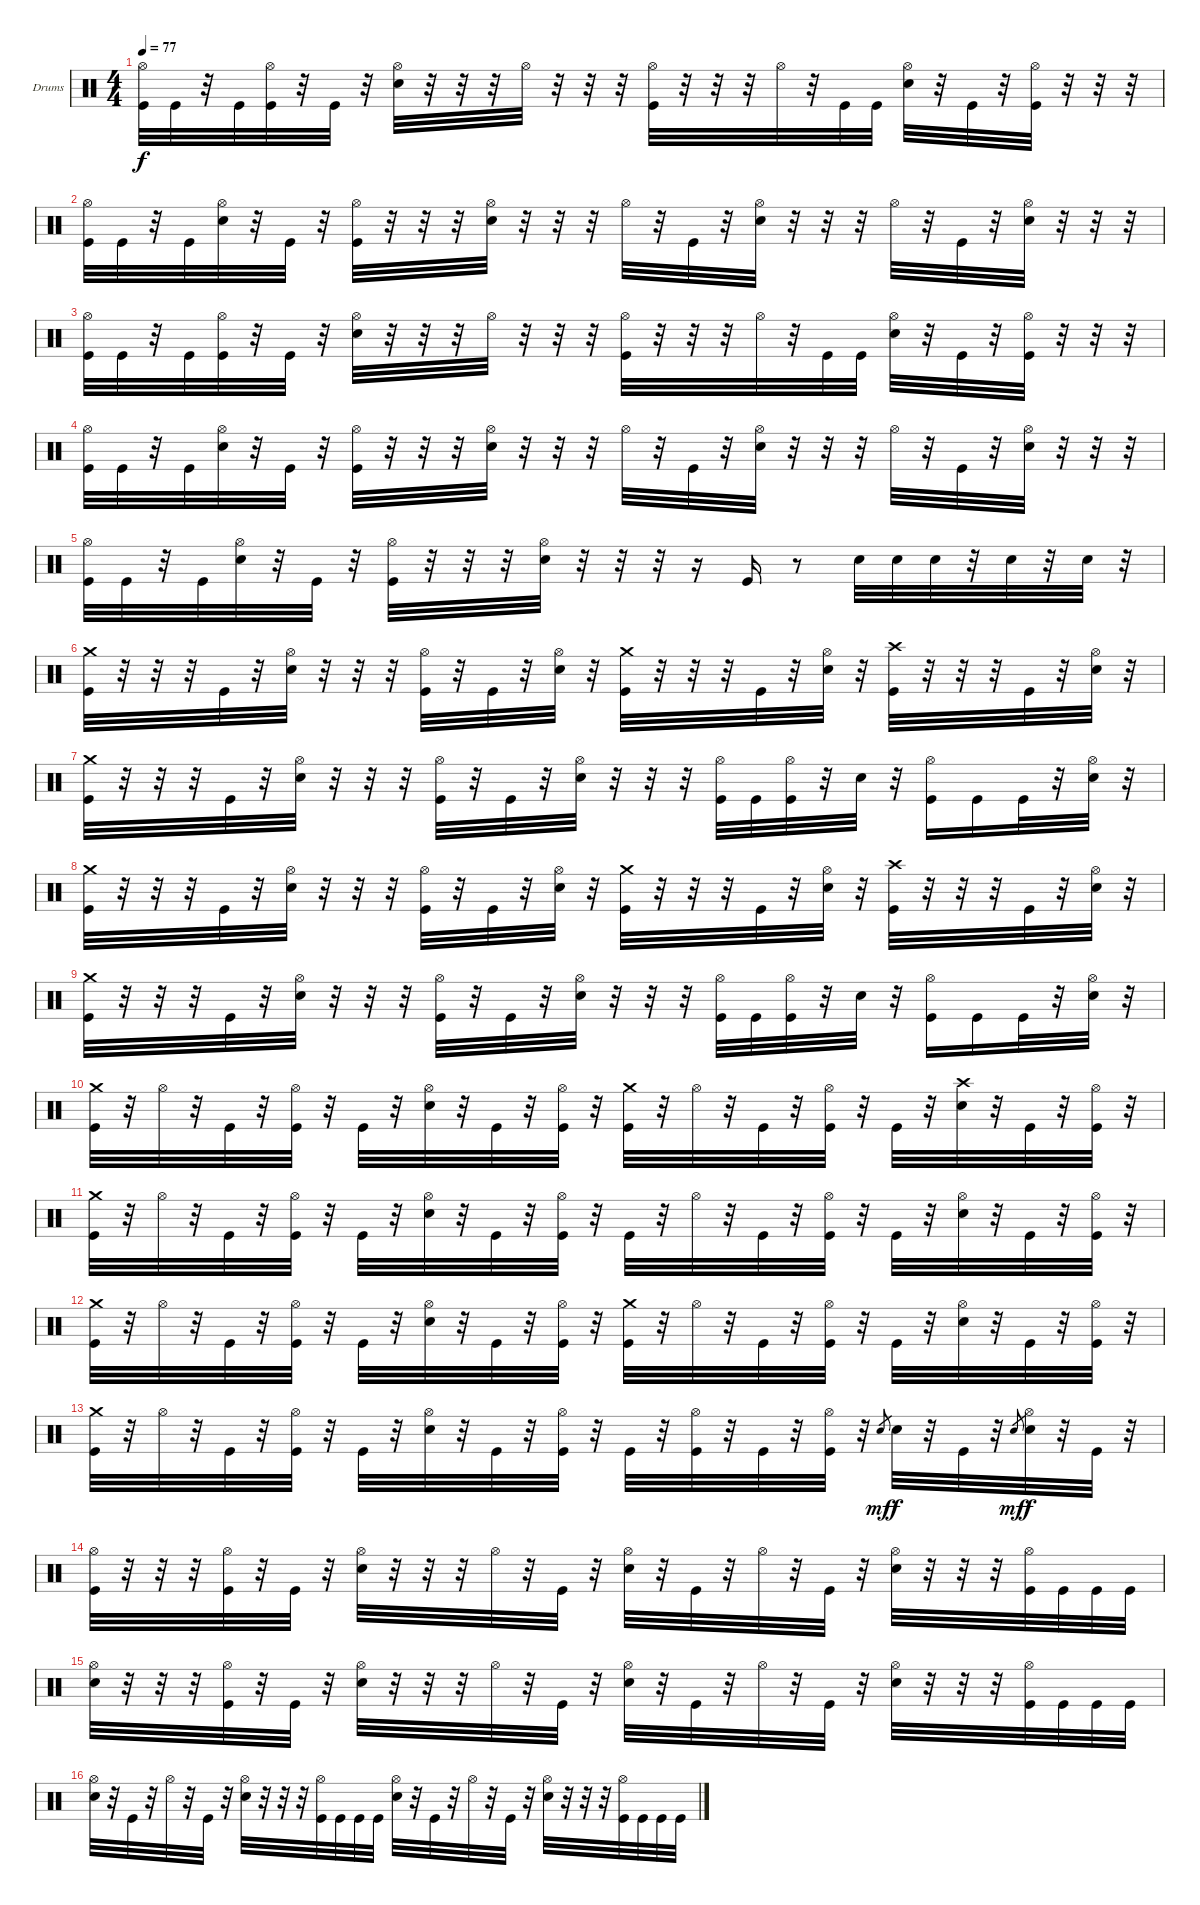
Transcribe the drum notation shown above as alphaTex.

\defaultSystemsLayout 4
\bracketExtendMode groupsimilarinstruments
\firstSystemTrackNameOrientation horizontal
\otherSystemsTrackNameOrientation horizontal
\track ("Drumkit" "Drums") {instrument percussion}
\staff {score}
\articulation defaults
\ts (4 4)
\tempo 77
\clef neutral
\ks c
("Hi-Hat (open)" "Kick (hit)").32{dy f} "Kick (hit)".32 r.32 "Kick (hit)".32 ("Hi-Hat (open)" "Kick (hit)").32 r.32 "Kick (hit)".32 r.32 ("Hi-Hat (open)" "Snare (hit) 2").32 r.32 r.32 r.32 "Hi-Hat (open)".32 r.32 r.32 r.32 ("Hi-Hat (open)" "Kick (hit)").32 r.32 r.32 r.32 "Hi-Hat (open)".32 r.32 "Kick (hit)".32 "Kick (hit)".32 ("Hi-Hat (open)" "Snare (hit) 2").32 r.32 "Kick (hit)".32 r.32 ("Hi-Hat (open)" "Kick (hit)").32 r.32 r.32 r.32 |
("Hi-Hat (open)" "Kick (hit)").32 "Kick (hit)".32 r.32 "Kick (hit)".32 ("Hi-Hat (open)" "Snare (hit) 2").32 r.32 "Kick (hit)".32 r.32 ("Hi-Hat (open)" "Kick (hit)").32 r.32 r.32 r.32 ("Hi-Hat (open)" "Snare (hit) 2").32 r.32 r.32 r.32 "Hi-Hat (open)".32 r.32 "Kick (hit)".32 r.32 ("Hi-Hat (open)" "Snare (hit) 2").32 r.32 r.32 r.32 "Hi-Hat (open)".32 r.32 "Kick (hit)".32 r.32 ("Hi-Hat (open)" "Snare (hit) 2").32 r.32 r.32 r.32 |
("Hi-Hat (open)" "Kick (hit)").32 "Kick (hit)".32 r.32 "Kick (hit)".32 ("Hi-Hat (open)" "Kick (hit)").32 r.32 "Kick (hit)".32 r.32 ("Hi-Hat (open)" "Snare (hit) 2").32 r.32 r.32 r.32 "Hi-Hat (open)".32 r.32 r.32 r.32 ("Hi-Hat (open)" "Kick (hit)").32 r.32 r.32 r.32 "Hi-Hat (open)".32 r.32 "Kick (hit)".32 "Kick (hit)".32 ("Hi-Hat (open)" "Snare (hit) 2").32 r.32 "Kick (hit)".32 r.32 ("Hi-Hat (open)" "Kick (hit)").32 r.32 r.32 r.32 |
("Hi-Hat (open)" "Kick (hit)").32 "Kick (hit)".32 r.32 "Kick (hit)".32 ("Hi-Hat (open)" "Snare (hit) 2").32 r.32 "Kick (hit)".32 r.32 ("Hi-Hat (open)" "Kick (hit)").32 r.32 r.32 r.32 ("Hi-Hat (open)" "Snare (hit) 2").32 r.32 r.32 r.32 "Hi-Hat (open)".32 r.32 "Kick (hit)".32 r.32 ("Hi-Hat (open)" "Snare (hit) 2").32 r.32 r.32 r.32 "Hi-Hat (open)".32 r.32 "Kick (hit)".32 r.32 ("Hi-Hat (open)" "Snare (hit) 2").32 r.32 r.32 r.32 |
("Hi-Hat (open)" "Kick (hit)").32 "Kick (hit)".32 r.32 "Kick (hit)".32 ("Hi-Hat (open)" "Snare (hit) 2").32 r.32 "Kick (hit)".32 r.32 ("Hi-Hat (open)" "Kick (hit)").32 r.32 r.32 r.32 ("Hi-Hat (open)" "Snare (hit) 2").32 r.32 r.32 r.32 r.16 "Kick (hit)".16 r.8 "Snare (hit) 2".32 "Snare (hit) 2".32 "Snare (hit) 2".32 r.32 "Snare (hit) 2".32 r.32 "Snare (hit) 2".32 r.32 |
("Crash medium (hit)" "Kick (hit)").32 r.32 r.32 r.32 "Kick (hit)".32 r.32 ("Hi-Hat (open)" "Snare (hit) 2").32 r.32 r.32 r.32 ("Hi-Hat (open)" "Kick (hit)").32 r.32 "Kick (hit)".32 r.32 ("Hi-Hat (open)" "Snare (hit) 2").32 r.32 ("Crash medium (hit)" "Kick (hit)").32 r.32 r.32 r.32 "Kick (hit)".32 r.32 ("Hi-Hat (open)" "Snare (hit) 2").32 r.32 ("Crash high (hit)" "Kick (hit)").32 r.32 r.32 r.32 "Kick (hit)".32 r.32 ("Hi-Hat (open)" "Snare (hit) 2").32 r.32 |
("Crash medium (hit)" "Kick (hit)").32 r.32 r.32 r.32 "Kick (hit)".32 r.32 ("Hi-Hat (open)" "Snare (hit) 2").32 r.32 r.32 r.32 ("Hi-Hat (open)" "Kick (hit)").32 r.32 "Kick (hit)".32 r.32 ("Hi-Hat (open)" "Snare (hit) 2").32 r.32 r.32 r.32 ("Hi-Hat (open)" "Kick (hit)").32 "Kick (hit)".32 ("Hi-Hat (open)" "Kick (hit)").32 r.32 "Snare (hit) 2".32 r.32 ("Hi-Hat (open)" "Kick (hit)").16 "Kick (hit)".16 "Kick (hit)".32 r.32 ("Hi-Hat (open)" "Snare (hit) 2").32 r.32 |
("Crash medium (hit)" "Kick (hit)").32 r.32 r.32 r.32 "Kick (hit)".32 r.32 ("Hi-Hat (open)" "Snare (hit) 2").32 r.32 r.32 r.32 ("Hi-Hat (open)" "Kick (hit)").32 r.32 "Kick (hit)".32 r.32 ("Hi-Hat (open)" "Snare (hit) 2").32 r.32 ("Crash medium (hit)" "Kick (hit)").32 r.32 r.32 r.32 "Kick (hit)".32 r.32 ("Hi-Hat (open)" "Snare (hit) 2").32 r.32 ("Crash high (hit)" "Kick (hit)").32 r.32 r.32 r.32 "Kick (hit)".32 r.32 ("Hi-Hat (open)" "Snare (hit) 2").32 r.32 |
("Crash medium (hit)" "Kick (hit)").32 r.32 r.32 r.32 "Kick (hit)".32 r.32 ("Hi-Hat (open)" "Snare (hit) 2").32 r.32 r.32 r.32 ("Hi-Hat (open)" "Kick (hit)").32 r.32 "Kick (hit)".32 r.32 ("Hi-Hat (open)" "Snare (hit) 2").32 r.32 r.32 r.32 ("Hi-Hat (open)" "Kick (hit)").32 "Kick (hit)".32 ("Hi-Hat (open)" "Kick (hit)").32 r.32 "Snare (hit) 2".32 r.32 ("Hi-Hat (open)" "Kick (hit)").16 "Kick (hit)".16 "Kick (hit)".32 r.32 ("Hi-Hat (open)" "Snare (hit) 2").32 r.32 |
("Crash medium (hit)" "Kick (hit)").32 r.32 "Hi-Hat (open)".32 r.32 "Kick (hit)".32 r.32 ("Hi-Hat (open)" "Kick (hit)").32 r.32 "Kick (hit)".32 r.32 ("Hi-Hat (open)" "Snare (hit) 2").32 r.32 "Kick (hit)".32 r.32 ("Hi-Hat (open)" "Kick (hit)").32 r.32 ("Crash medium (hit)" "Kick (hit)").32 r.32 "Hi-Hat (open)".32 r.32 "Kick (hit)".32 r.32 ("Hi-Hat (open)" "Kick (hit)").32 r.32 "Kick (hit)".32 r.32 ("Crash high (hit)" "Snare (hit) 2").32 r.32 "Kick (hit)".32 r.32 ("Hi-Hat (open)" "Kick (hit)").32 r.32 |
("Crash medium (hit)" "Kick (hit)").32 r.32 "Hi-Hat (open)".32 r.32 "Kick (hit)".32 r.32 ("Hi-Hat (open)" "Kick (hit)").32 r.32 "Kick (hit)".32 r.32 ("Hi-Hat (open)" "Snare (hit) 2").32 r.32 "Kick (hit)".32 r.32 ("Hi-Hat (open)" "Kick (hit)").32 r.32 "Kick (hit)".32 r.32 "Hi-Hat (open)".32 r.32 "Kick (hit)".32 r.32 ("Hi-Hat (open)" "Kick (hit)").32 r.32 "Kick (hit)".32 r.32 ("Hi-Hat (open)" "Snare (hit) 2").32 r.32 "Kick (hit)".32 r.32 ("Hi-Hat (open)" "Kick (hit)").32 r.32 |
("Crash medium (hit)" "Kick (hit)").32 r.32 "Hi-Hat (open)".32 r.32 "Kick (hit)".32 r.32 ("Hi-Hat (open)" "Kick (hit)").32 r.32 "Kick (hit)".32 r.32 ("Hi-Hat (open)" "Snare (hit) 2").32 r.32 "Kick (hit)".32 r.32 ("Hi-Hat (open)" "Kick (hit)").32 r.32 ("Crash medium (hit)" "Kick (hit)").32 r.32 "Hi-Hat (open)".32 r.32 "Kick (hit)".32 r.32 ("Hi-Hat (open)" "Kick (hit)").32 r.32 "Kick (hit)".32 r.32 ("Hi-Hat (open)" "Snare (hit) 2").32 r.32 "Kick (hit)".32 r.32 ("Hi-Hat (open)" "Kick (hit)").32 r.32 |
("Crash medium (hit)" "Kick (hit)").32 r.32 "Hi-Hat (open)".32 r.32 "Kick (hit)".32 r.32 ("Hi-Hat (open)" "Kick (hit)").32 r.32 "Kick (hit)".32 r.32 ("Hi-Hat (open)" "Snare (hit) 2").32 r.32 "Kick (hit)".32 r.32 ("Hi-Hat (open)" "Kick (hit)").32 r.32 "Kick (hit)".32 r.32 ("Hi-Hat (open)" "Kick (hit)").32 r.32 "Kick (hit)".32 r.32 ("Hi-Hat (open)" "Kick (hit)").32 r.32 "Snare (hit) 2".8{gr dy mf} "Snare (hit) 2".32{dy f} r.32 "Kick (hit)".32 r.32 "Snare (hit) 2".8{gr dy mf} ("Hi-Hat (open)" "Snare (hit) 2").32{dy f} r.32 "Kick (hit)".32 r.32 |
("Hi-Hat (open)" "Kick (hit)").32 r.32 r.32 r.32 ("Hi-Hat (open)" "Kick (hit)").32 r.32 "Kick (hit)".32 r.32 ("Hi-Hat (open)" "Snare (hit) 2").32 r.32 r.32 r.32 "Hi-Hat (open)".32 r.32 "Kick (hit)".32 r.32 ("Hi-Hat (open)" "Snare (hit) 2").32 r.32 "Kick (hit)".32 r.32 "Hi-Hat (open)".32 r.32 "Kick (hit)".32 r.32 ("Hi-Hat (open)" "Snare (hit) 2").32 r.32 r.32 r.32 ("Hi-Hat (open)" "Kick (hit)").32 "Kick (hit)".32 "Kick (hit)".32 "Kick (hit)".32 |
("Hi-Hat (open)" "Snare (hit) 2").32 r.32 r.32 r.32 ("Hi-Hat (open)" "Kick (hit)").32 r.32 "Kick (hit)".32 r.32 ("Hi-Hat (open)" "Snare (hit) 2").32 r.32 r.32 r.32 "Hi-Hat (open)".32 r.32 "Kick (hit)".32 r.32 ("Hi-Hat (open)" "Snare (hit) 2").32 r.32 "Kick (hit)".32 r.32 "Hi-Hat (open)".32 r.32 "Kick (hit)".32 r.32 ("Hi-Hat (open)" "Snare (hit) 2").32 r.32 r.32 r.32 ("Hi-Hat (open)" "Kick (hit)").32 "Kick (hit)".32 "Kick (hit)".32 "Kick (hit)".32 |
("Hi-Hat (open)" "Snare (hit) 2").32 r.32 "Kick (hit)".32 r.32 "Hi-Hat (open)".32 r.32 "Kick (hit)".32 r.32 ("Hi-Hat (open)" "Snare (hit) 2").32 r.32 r.32 r.32 ("Hi-Hat (open)" "Kick (hit)").32 "Kick (hit)".32 "Kick (hit)".32 "Kick (hit)".32 ("Hi-Hat (open)" "Snare (hit) 2").32 r.32 "Kick (hit)".32 r.32 "Hi-Hat (open)".32 r.32 "Kick (hit)".32 r.32 ("Hi-Hat (open)" "Snare (hit) 2").32 r.32 r.32 r.32 ("Hi-Hat (open)" "Kick (hit)").32 "Kick (hit)".32 "Kick (hit)".32 "Kick (hit)".32
